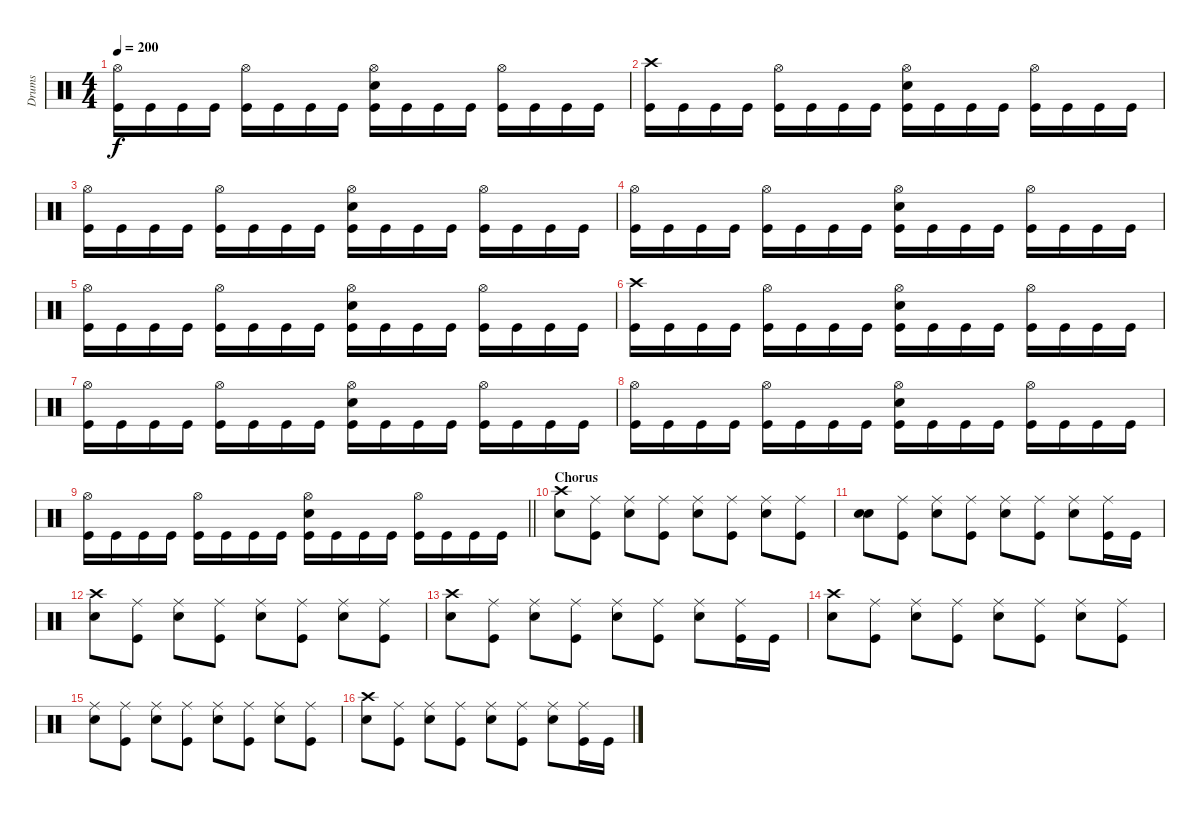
\track ("Drums" "Drums") {instrument percussion}
\staff {score}
\articulation defaults
\ts (4 4)
\tempo 200
\clef neutral
\ks c
("Hi-Hat (open)" "Kick (hit)").16{dy f} "Kick (hit)".16 "Kick (hit)".16 "Kick (hit)".16 ("Hi-Hat (open)" "Kick (hit)").16 "Kick (hit)".16 "Kick (hit)".16 "Kick (hit)".16 ("Hi-Hat (open)" "Snare (hit) 2" "Kick (hit)").16 "Kick (hit)".16 "Kick (hit)".16 "Kick (hit)".16 ("Hi-Hat (open)" "Kick (hit)").16 "Kick (hit)".16 "Kick (hit)".16 "Kick (hit)".16 |
("Crash high (hit)" "Kick (hit)").16 "Kick (hit)".16 "Kick (hit)".16 "Kick (hit)".16 ("Hi-Hat (open)" "Kick (hit)").16 "Kick (hit)".16 "Kick (hit)".16 "Kick (hit)".16 ("Hi-Hat (open)" "Snare (hit) 2" "Kick (hit)").16 "Kick (hit)".16 "Kick (hit)".16 "Kick (hit)".16 ("Hi-Hat (open)" "Kick (hit)").16 "Kick (hit)".16 "Kick (hit)".16 "Kick (hit)".16 |
("Hi-Hat (open)" "Kick (hit)").16 "Kick (hit)".16 "Kick (hit)".16 "Kick (hit)".16 ("Hi-Hat (open)" "Kick (hit)").16 "Kick (hit)".16 "Kick (hit)".16 "Kick (hit)".16 ("Hi-Hat (open)" "Snare (hit) 2" "Kick (hit)").16 "Kick (hit)".16 "Kick (hit)".16 "Kick (hit)".16 ("Hi-Hat (open)" "Kick (hit)").16 "Kick (hit)".16 "Kick (hit)".16 "Kick (hit)".16 |
("Hi-Hat (open)" "Kick (hit)").16 "Kick (hit)".16 "Kick (hit)".16 "Kick (hit)".16 ("Hi-Hat (open)" "Kick (hit)").16 "Kick (hit)".16 "Kick (hit)".16 "Kick (hit)".16 ("Hi-Hat (open)" "Snare (hit) 2" "Kick (hit)").16 "Kick (hit)".16 "Kick (hit)".16 "Kick (hit)".16 ("Hi-Hat (open)" "Kick (hit)").16 "Kick (hit)".16 "Kick (hit)".16 "Kick (hit)".16 |
("Hi-Hat (open)" "Kick (hit)").16 "Kick (hit)".16 "Kick (hit)".16 "Kick (hit)".16 ("Hi-Hat (open)" "Kick (hit)").16 "Kick (hit)".16 "Kick (hit)".16 "Kick (hit)".16 ("Hi-Hat (open)" "Snare (hit) 2" "Kick (hit)").16 "Kick (hit)".16 "Kick (hit)".16 "Kick (hit)".16 ("Hi-Hat (open)" "Kick (hit)").16 "Kick (hit)".16 "Kick (hit)".16 "Kick (hit)".16 |
("Crash high (hit)" "Kick (hit)").16 "Kick (hit)".16 "Kick (hit)".16 "Kick (hit)".16 ("Hi-Hat (open)" "Kick (hit)").16 "Kick (hit)".16 "Kick (hit)".16 "Kick (hit)".16 ("Hi-Hat (open)" "Snare (hit) 2" "Kick (hit)").16 "Kick (hit)".16 "Kick (hit)".16 "Kick (hit)".16 ("Hi-Hat (open)" "Kick (hit)").16 "Kick (hit)".16 "Kick (hit)".16 "Kick (hit)".16 |
("Hi-Hat (open)" "Kick (hit)").16 "Kick (hit)".16 "Kick (hit)".16 "Kick (hit)".16 ("Hi-Hat (open)" "Kick (hit)").16 "Kick (hit)".16 "Kick (hit)".16 "Kick (hit)".16 ("Hi-Hat (open)" "Snare (hit) 2" "Kick (hit)").16 "Kick (hit)".16 "Kick (hit)".16 "Kick (hit)".16 ("Hi-Hat (open)" "Kick (hit)").16 "Kick (hit)".16 "Kick (hit)".16 "Kick (hit)".16 |
("Hi-Hat (open)" "Kick (hit)").16 "Kick (hit)".16 "Kick (hit)".16 "Kick (hit)".16 ("Hi-Hat (open)" "Kick (hit)").16 "Kick (hit)".16 "Kick (hit)".16 "Kick (hit)".16 ("Hi-Hat (open)" "Snare (hit) 2" "Kick (hit)").16 "Kick (hit)".16 "Kick (hit)".16 "Kick (hit)".16 ("Hi-Hat (open)" "Kick (hit)").16 "Kick (hit)".16 "Kick (hit)".16 "Kick (hit)".16 |
\barLineRight lightlight
("Hi-Hat (open)" "Kick (hit)").16 "Kick (hit)".16 "Kick (hit)".16 "Kick (hit)".16 ("Hi-Hat (open)" "Kick (hit)").16 "Kick (hit)".16 "Kick (hit)".16 "Kick (hit)".16 ("Hi-Hat (open)" "Snare (hit) 2" "Kick (hit)").16 "Kick (hit)".16 "Kick (hit)".16 "Kick (hit)".16 ("Hi-Hat (open)" "Kick (hit)").16 "Kick (hit)".16 "Kick (hit)".16 "Kick (hit)".16 |
\section ("" "Chorus")
("Crash high (hit)" "Snare (hit) 2").8 ("Ride (middle)" "Kick (hit)").8 ("Ride (middle)" "Snare (hit) 2").8 ("Ride (middle)" "Kick (hit)").8 ("Ride (middle)" "Snare (hit) 2").8 ("Ride (middle)" "Kick (hit)").8 ("Ride (middle)" "Snare (hit) 2").8 ("Ride (middle)" "Kick (hit)").8 |
("Snare (hit)" "Snare (hit) 2").8 ("Ride (middle)" "Kick (hit)").8 ("Ride (middle)" "Snare (hit) 2").8 ("Ride (middle)" "Kick (hit)").8 ("Ride (middle)" "Snare (hit) 2").8 ("Ride (middle)" "Kick (hit)").8 ("Ride (middle)" "Snare (hit) 2").8 ("Ride (middle)" "Kick (hit)").16 "Kick (hit)".16 |
("Crash high (hit)" "Snare (hit) 2").8 ("Ride (middle)" "Kick (hit)").8 ("Ride (middle)" "Snare (hit) 2").8 ("Ride (middle)" "Kick (hit)").8 ("Ride (middle)" "Snare (hit) 2").8 ("Ride (middle)" "Kick (hit)").8 ("Ride (middle)" "Snare (hit) 2").8 ("Ride (middle)" "Kick (hit)").8 |
("Crash high (hit)" "Snare (hit) 2").8 ("Ride (middle)" "Kick (hit)").8 ("Ride (middle)" "Snare (hit) 2").8 ("Ride (middle)" "Kick (hit)").8 ("Ride (middle)" "Snare (hit) 2").8 ("Ride (middle)" "Kick (hit)").8 ("Ride (middle)" "Snare (hit) 2").8 ("Ride (middle)" "Kick (hit)").16 "Kick (hit)".16 |
("Crash high (hit)" "Snare (hit) 2").8 ("Ride (middle)" "Kick (hit)").8 ("Ride (middle)" "Snare (hit) 2").8 ("Ride (middle)" "Kick (hit)").8 ("Ride (middle)" "Snare (hit) 2").8 ("Ride (middle)" "Kick (hit)").8 ("Ride (middle)" "Snare (hit) 2").8 ("Ride (middle)" "Kick (hit)").8 |
("Ride (middle)" "Snare (hit) 2").8 ("Ride (middle)" "Kick (hit)").8 ("Ride (middle)" "Snare (hit) 2").8 ("Ride (middle)" "Kick (hit)").8 ("Ride (middle)" "Snare (hit) 2").8 ("Ride (middle)" "Kick (hit)").8 ("Ride (middle)" "Snare (hit) 2").8 ("Ride (middle)" "Kick (hit)").8 |
("Crash high (hit)" "Snare (hit) 2").8 ("Ride (middle)" "Kick (hit)").8 ("Ride (middle)" "Snare (hit) 2").8 ("Ride (middle)" "Kick (hit)").8 ("Ride (middle)" "Snare (hit) 2").8 ("Ride (middle)" "Kick (hit)").8 ("Ride (middle)" "Snare (hit) 2").8 ("Ride (middle)" "Kick (hit)").16 "Kick (hit)".16
